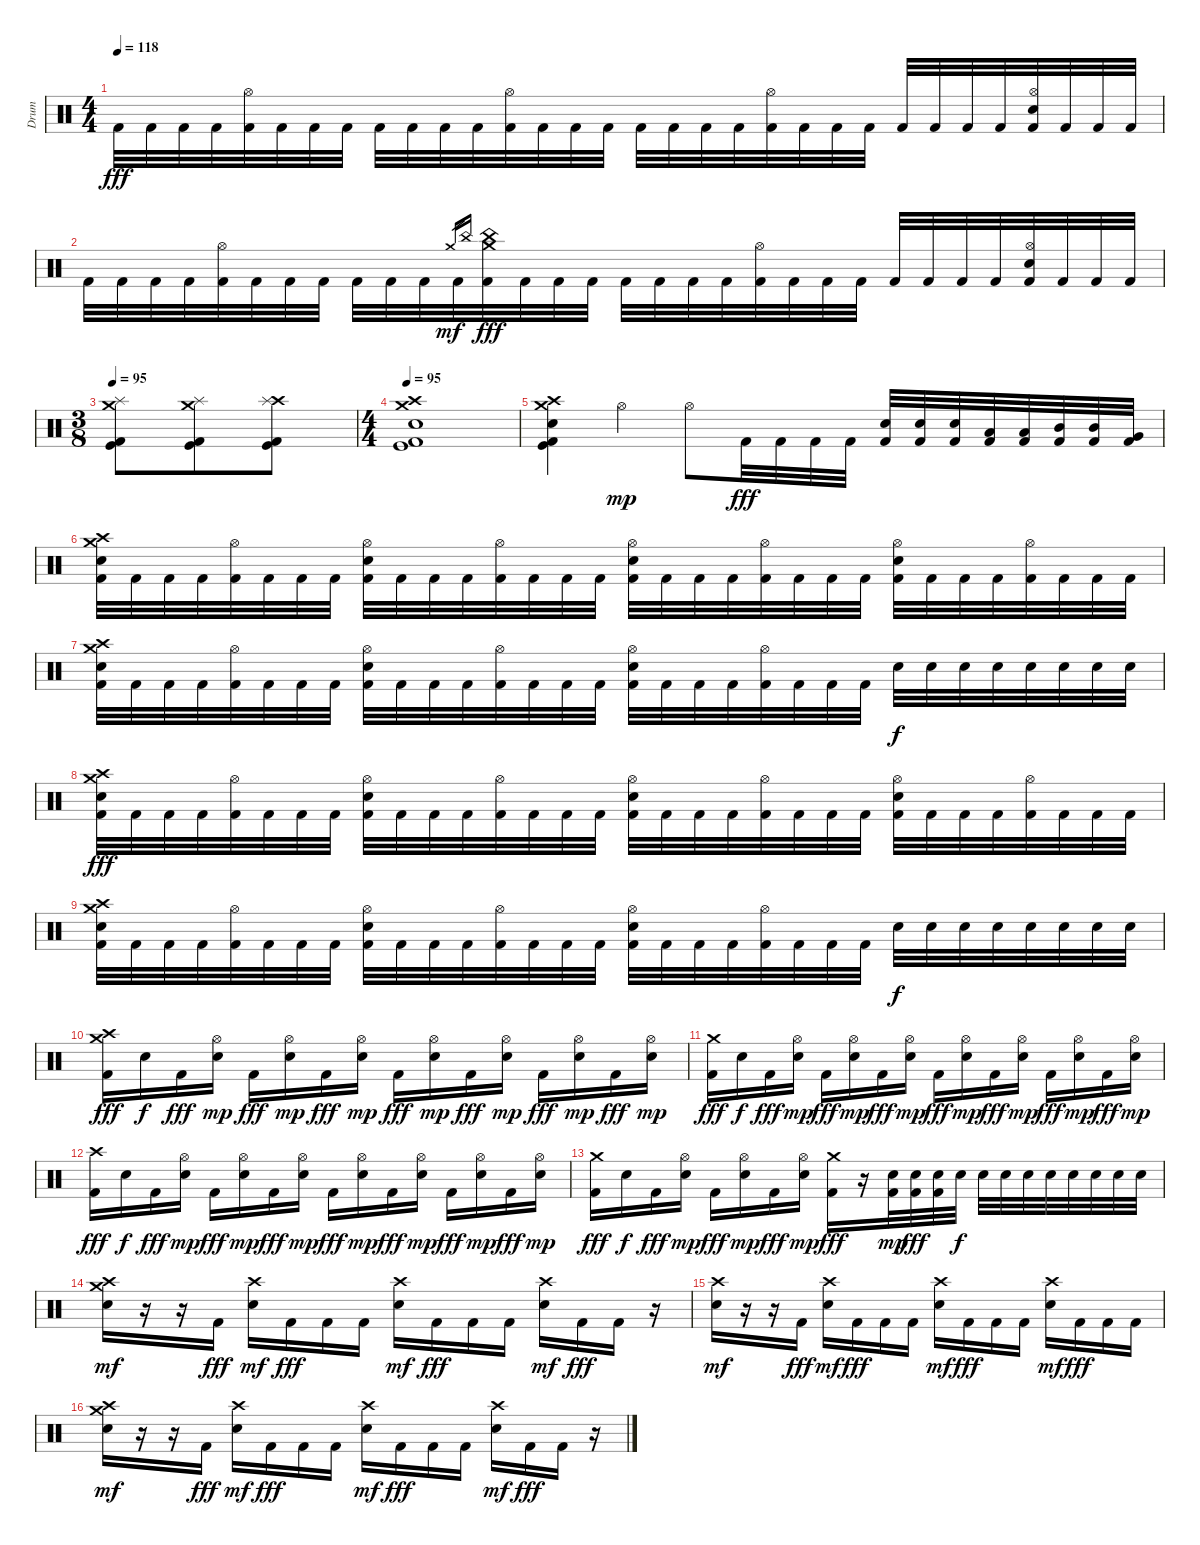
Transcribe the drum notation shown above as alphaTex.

\track ("Drum" "Drum") {instrument percussion}
\staff {score}
\articulation defaults
\ts (4 4)
\tempo 118
\clef neutral
\ks c "Kick (hit) 2".32{dy fff} "Kick (hit) 2".32 "Kick (hit) 2".32 "Kick (hit) 2".32
("Hi-Hat (open)" "Kick (hit) 2").32 "Kick (hit) 2".32 "Kick (hit) 2".32 "Kick (hit) 2".32 "Kick (hit) 2".32 "Kick (hit) 2".32 "Kick (hit) 2".32 "Kick (hit) 2".32 ("Hi-Hat (open)" "Kick (hit) 2").32 "Kick (hit) 2".32 "Kick (hit) 2".32 "Kick (hit) 2".32 "Kick (hit) 2".32 "Kick (hit) 2".32 "Kick (hit) 2".32 "Kick (hit) 2".32 ("Hi-Hat (open)" "Kick (hit) 2").32 "Kick (hit) 2".32 "Kick (hit) 2".32 "Kick (hit) 2".32 "Kick (hit) 2".32 "Kick (hit) 2".32 "Kick (hit) 2".32 "Kick (hit) 2".32 ("Hi-Hat (open)" "Electric Snare (hit)" "Kick (hit) 2").32 "Kick (hit) 2".32 "Kick (hit) 2".32 "Kick (hit) 2".32 |
"Kick (hit) 2".32 "Kick (hit) 2".32 "Kick (hit) 2".32 "Kick (hit) 2".32 ("Hi-Hat (open)" "Kick (hit) 2").32 "Kick (hit) 2".32 "Kick (hit) 2".32 "Kick (hit) 2".32 "Kick (hit) 2".32 "Kick (hit) 2".32 "Kick (hit) 2".32 "Kick (hit) 2".32 "Crash medium (hit)".16{gr dy mf} "China (hit)".16{gr} ("Crash medium (hit)" "China (hit)" "Kick (hit) 2").32{dy fff} "Kick (hit) 2".32 "Kick (hit) 2".32 "Kick (hit) 2".32 "Kick (hit) 2".32 "Kick (hit) 2".32 "Kick (hit) 2".32 "Kick (hit) 2".32 ("Hi-Hat (open)" "Kick (hit) 2").32 "Kick (hit) 2".32 "Kick (hit) 2".32 "Kick (hit) 2".32 "Kick (hit) 2".32 "Kick (hit) 2".32 "Kick (hit) 2".32 "Kick (hit) 2".32 ("Hi-Hat (open)" "Electric Snare (hit)" "Kick (hit) 2").32 "Kick (hit) 2".32 "Kick (hit) 2".32 "Kick (hit) 2".32 |
\ts (3 8)
\tempo 95
("Crash medium (hit)" "Splash (hit)" "Kick (hit)" "Kick (hit) 2").8 ("Crash medium (hit)" "Splash (hit)" "Kick (hit)" "Kick (hit) 2").8 ("Crash high (hit)" "Splash (hit)" "Kick (hit)" "Kick (hit) 2").8 |
\ts (4 4)
\tempo 95
("Crash high (hit)" "Crash medium (hit)" "Electric Snare (hit)" "Kick (hit)" "Kick (hit) 2").1 |
("Crash high (hit)" "Crash medium (hit)" "Electric Snare (hit)" "Kick (hit)" "Kick (hit) 2").4 "Hi-Hat (open)".4{dy mp} "Hi-Hat (open)".8 "Kick (hit) 2".32{dy fff} "Kick (hit) 2".32 "Kick (hit) 2".32 "Kick (hit) 2".32 ("Electric Snare (hit)" "Kick (hit) 2").32 ("Electric Snare (hit)" "Kick (hit) 2").32 ("Electric Snare (hit)" "Kick (hit) 2").32 ("Low Tom (hit)" "Kick (hit) 2").32 ("Low Tom (hit)" "Kick (hit) 2").32 ("Mid Tom (hit)" "Kick (hit) 2").32 ("Mid Tom (hit)" "Kick (hit) 2").32 ("Very Low Tom (hit)" "Kick (hit) 2").32 |
("Crash medium (hit)" "Crash high (hit)" "Electric Snare (hit)" "Kick (hit) 2").32 "Kick (hit) 2".32 "Kick (hit) 2".32 "Kick (hit) 2".32 ("Hi-Hat (open)" "Kick (hit) 2").32 "Kick (hit) 2".32 "Kick (hit) 2".32 "Kick (hit) 2".32 ("Hi-Hat (open)" "Electric Snare (hit)" "Kick (hit) 2").32 "Kick (hit) 2".32 "Kick (hit) 2".32 "Kick (hit) 2".32 ("Hi-Hat (open)" "Kick (hit) 2").32 "Kick (hit) 2".32 "Kick (hit) 2".32 "Kick (hit) 2".32 ("Hi-Hat (open)" "Electric Snare (hit)" "Kick (hit) 2").32 "Kick (hit) 2".32 "Kick (hit) 2".32 "Kick (hit) 2".32 ("Hi-Hat (open)" "Kick (hit) 2").32 "Kick (hit) 2".32 "Kick (hit) 2".32 "Kick (hit) 2".32 ("Hi-Hat (open)" "Electric Snare (hit)" "Kick (hit) 2").32 "Kick (hit) 2".32 "Kick (hit) 2".32 "Kick (hit) 2".32 ("Hi-Hat (open)" "Kick (hit) 2").32 "Kick (hit) 2".32 "Kick (hit) 2".32 "Kick (hit) 2".32 |
("Crash medium (hit)" "Crash high (hit)" "Electric Snare (hit)" "Kick (hit) 2").32 "Kick (hit) 2".32 "Kick (hit) 2".32 "Kick (hit) 2".32 ("Hi-Hat (open)" "Kick (hit) 2").32 "Kick (hit) 2".32 "Kick (hit) 2".32 "Kick (hit) 2".32 ("Hi-Hat (open)" "Electric Snare (hit)" "Kick (hit) 2").32 "Kick (hit) 2".32 "Kick (hit) 2".32 "Kick (hit) 2".32 ("Hi-Hat (open)" "Kick (hit) 2").32 "Kick (hit) 2".32 "Kick (hit) 2".32 "Kick (hit) 2".32 ("Hi-Hat (open)" "Electric Snare (hit)" "Kick (hit) 2").32 "Kick (hit) 2".32 "Kick (hit) 2".32 "Kick (hit) 2".32 ("Hi-Hat (open)" "Kick (hit) 2").32 "Kick (hit) 2".32 "Kick (hit) 2".32 "Kick (hit) 2".32 "Electric Snare (hit)".32{dy f} "Electric Snare (hit)".32 "Electric Snare (hit)".32 "Electric Snare (hit)".32 "Electric Snare (hit)".32 "Electric Snare (hit)".32 "Electric Snare (hit)".32 "Electric Snare (hit)".32 |
("Crash medium (hit)" "Crash high (hit)" "Electric Snare (hit)" "Kick (hit) 2").32{dy fff} "Kick (hit) 2".32 "Kick (hit) 2".32 "Kick (hit) 2".32 ("Hi-Hat (open)" "Kick (hit) 2").32 "Kick (hit) 2".32 "Kick (hit) 2".32 "Kick (hit) 2".32 ("Hi-Hat (open)" "Electric Snare (hit)" "Kick (hit) 2").32 "Kick (hit) 2".32 "Kick (hit) 2".32 "Kick (hit) 2".32 ("Hi-Hat (open)" "Kick (hit) 2").32 "Kick (hit) 2".32 "Kick (hit) 2".32 "Kick (hit) 2".32 ("Hi-Hat (open)" "Electric Snare (hit)" "Kick (hit) 2").32 "Kick (hit) 2".32 "Kick (hit) 2".32 "Kick (hit) 2".32 ("Hi-Hat (open)" "Kick (hit) 2").32 "Kick (hit) 2".32 "Kick (hit) 2".32 "Kick (hit) 2".32 ("Hi-Hat (open)" "Electric Snare (hit)" "Kick (hit) 2").32 "Kick (hit) 2".32 "Kick (hit) 2".32 "Kick (hit) 2".32 ("Hi-Hat (open)" "Kick (hit) 2").32 "Kick (hit) 2".32 "Kick (hit) 2".32 "Kick (hit) 2".32 |
("Crash medium (hit)" "Crash high (hit)" "Electric Snare (hit)" "Kick (hit) 2").32 "Kick (hit) 2".32 "Kick (hit) 2".32 "Kick (hit) 2".32 ("Hi-Hat (open)" "Kick (hit) 2").32 "Kick (hit) 2".32 "Kick (hit) 2".32 "Kick (hit) 2".32 ("Hi-Hat (open)" "Electric Snare (hit)" "Kick (hit) 2").32 "Kick (hit) 2".32 "Kick (hit) 2".32 "Kick (hit) 2".32 ("Hi-Hat (open)" "Kick (hit) 2").32 "Kick (hit) 2".32 "Kick (hit) 2".32 "Kick (hit) 2".32 ("Hi-Hat (open)" "Electric Snare (hit)" "Kick (hit) 2").32 "Kick (hit) 2".32 "Kick (hit) 2".32 "Kick (hit) 2".32 ("Hi-Hat (open)" "Kick (hit) 2").32 "Kick (hit) 2".32 "Kick (hit) 2".32 "Kick (hit) 2".32 "Electric Snare (hit)".32{dy f} "Electric Snare (hit)".32 "Electric Snare (hit)".32 "Electric Snare (hit)".32 "Electric Snare (hit)".32 "Electric Snare (hit)".32 "Electric Snare (hit)".32 "Electric Snare (hit)".32 |
("Crash medium (hit)" "Crash high (hit)" "Kick (hit) 2").16{dy fff} "Electric Snare (hit)".16{dy f} "Kick (hit) 2".16{dy fff} ("Hi-Hat (open)" "Electric Snare (hit)").16{dy mp} "Kick (hit) 2".16{dy fff} ("Hi-Hat (open)" "Electric Snare (hit)").16{dy mp} "Kick (hit) 2".16{dy fff} ("Hi-Hat (open)" "Electric Snare (hit)").16{dy mp} "Kick (hit) 2".16{dy fff} ("Hi-Hat (open)" "Electric Snare (hit)").16{dy mp} "Kick (hit) 2".16{dy fff} ("Hi-Hat (open)" "Electric Snare (hit)").16{dy mp} "Kick (hit) 2".16{dy fff} ("Hi-Hat (open)" "Electric Snare (hit)").16{dy mp} "Kick (hit) 2".16{dy fff} ("Hi-Hat (open)" "Electric Snare (hit)").16{dy mp} |
("Crash medium (hit)" "Kick (hit) 2").16{dy fff} "Electric Snare (hit)".16{dy f} "Kick (hit) 2".16{dy fff} ("Hi-Hat (open)" "Electric Snare (hit)").16{dy mp} "Kick (hit) 2".16{dy fff} ("Hi-Hat (open)" "Electric Snare (hit)").16{dy mp} "Kick (hit) 2".16{dy fff} ("Hi-Hat (open)" "Electric Snare (hit)").16{dy mp} "Kick (hit) 2".16{dy fff} ("Hi-Hat (open)" "Electric Snare (hit)").16{dy mp} "Kick (hit) 2".16{dy fff} ("Hi-Hat (open)" "Electric Snare (hit)").16{dy mp} "Kick (hit) 2".16{dy fff} ("Hi-Hat (open)" "Electric Snare (hit)").16{dy mp} "Kick (hit) 2".16{dy fff} ("Hi-Hat (open)" "Electric Snare (hit)").16{dy mp} |
("Crash high (hit)" "Kick (hit) 2").16{dy fff} "Electric Snare (hit)".16{dy f} "Kick (hit) 2".16{dy fff} ("Hi-Hat (open)" "Electric Snare (hit)").16{dy mp} "Kick (hit) 2".16{dy fff} ("Hi-Hat (open)" "Electric Snare (hit)").16{dy mp} "Kick (hit) 2".16{dy fff} ("Hi-Hat (open)" "Electric Snare (hit)").16{dy mp} "Kick (hit) 2".16{dy fff} ("Hi-Hat (open)" "Electric Snare (hit)").16{dy mp} "Kick (hit) 2".16{dy fff} ("Hi-Hat (open)" "Electric Snare (hit)").16{dy mp} "Kick (hit) 2".16{dy fff} ("Hi-Hat (open)" "Electric Snare (hit)").16{dy mp} "Kick (hit) 2".16{dy fff} ("Hi-Hat (open)" "Electric Snare (hit)").16{dy mp} |
("Crash medium (hit)" "Kick (hit) 2").16{dy fff} "Electric Snare (hit)".16{dy f} "Kick (hit) 2".16{dy fff} ("Hi-Hat (open)" "Electric Snare (hit)").16{dy mp} "Kick (hit) 2".16{dy fff} ("Hi-Hat (open)" "Electric Snare (hit)").16{dy mp} "Kick (hit) 2".16{dy fff} ("Hi-Hat (open)" "Electric Snare (hit)").16{dy mp} ("Crash medium (hit)" "Kick (hit) 2").16{dy fff} r.16 ("Electric Snare (hit)" "Kick (hit) 2").32{dy mp} ("Electric Snare (hit)" "Kick (hit) 2").32{dy fff} ("Electric Snare (hit)" "Kick (hit) 2").32 "Electric Snare (hit)".32{dy f} "Electric Snare (hit)".32 "Electric Snare (hit)".32 "Electric Snare (hit)".32 "Electric Snare (hit)".32 "Electric Snare (hit)".32 "Electric Snare (hit)".32 "Electric Snare (hit)".32 "Electric Snare (hit)".32 |
("Crash medium (hit)" "Crash high (hit)" "Electric Snare (hit)").16{dy mf} r.16 r.16 "Kick (hit) 2".16{dy fff} ("Crash high (hit)" "Electric Snare (hit)").16{dy mf} "Kick (hit) 2".16{dy fff} "Kick (hit) 2".16 "Kick (hit) 2".16 ("Crash high (hit)" "Electric Snare (hit)").16{dy mf} "Kick (hit) 2".16{dy fff} "Kick (hit) 2".16 "Kick (hit) 2".16 ("Crash high (hit)" "Electric Snare (hit)").16{dy mf} "Kick (hit) 2".16{dy fff} "Kick (hit) 2".16 r.16 |
("Crash high (hit)" "Electric Snare (hit)").16{dy mf} r.16 r.16 "Kick (hit) 2".16{dy fff} ("Crash high (hit)" "Electric Snare (hit)").16{dy mf} "Kick (hit) 2".16{dy fff} "Kick (hit) 2".16 "Kick (hit) 2".16 ("Crash high (hit)" "Electric Snare (hit)").16{dy mf} "Kick (hit) 2".16{dy fff} "Kick (hit) 2".16 "Kick (hit) 2".16 ("Crash high (hit)" "Electric Snare (hit)").16{dy mf} "Kick (hit) 2".16{dy fff} "Kick (hit) 2".16 "Kick (hit) 2".16 |
("Crash medium (hit)" "Crash high (hit)" "Electric Snare (hit)").16{dy mf} r.16 r.16 "Kick (hit) 2".16{dy fff} ("Crash high (hit)" "Electric Snare (hit)").16{dy mf} "Kick (hit) 2".16{dy fff} "Kick (hit) 2".16 "Kick (hit) 2".16 ("Crash high (hit)" "Electric Snare (hit)").16{dy mf} "Kick (hit) 2".16{dy fff} "Kick (hit) 2".16 "Kick (hit) 2".16 ("Crash high (hit)" "Electric Snare (hit)").16{dy mf} "Kick (hit) 2".16{dy fff} "Kick (hit) 2".16 r.16
